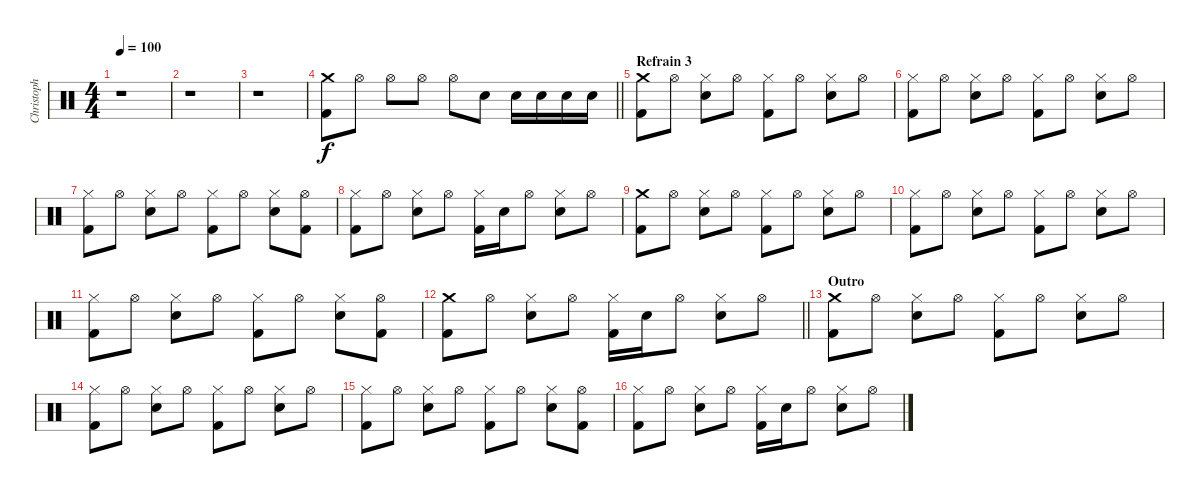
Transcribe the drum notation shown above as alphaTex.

\track ("Christoph - Drums" "Christoph ") {instrument percussion}
\staff {score}
\articulation defaults
\ts (4 4)
\tempo 100
\clef neutral
\ks c
r.1{dy f} |
r.1 |
r.1 |
\barLineRight lightlight
("Crash medium (hit)" "Kick (hit) 2").8 "Hi-Hat (open)".8 "Hi-Hat (open)".8 "Hi-Hat (open)".8 "Hi-Hat (open)".8 "Snare (hit) 2".8 "Snare (hit) 2".16 "Snare (hit) 2".16 "Snare (hit) 2".16 "Snare (hit) 2".16 |
\section ("" "Refrain 3")
("Crash medium (hit)" "Kick (hit) 2").8 "Hi-Hat (open)".8 ("Hi-Hat (closed)" "Snare (hit) 2").8 "Hi-Hat (open)".8 ("Hi-Hat (closed)" "Kick (hit) 2").8 "Hi-Hat (open)".8 ("Hi-Hat (closed)" "Snare (hit) 2").8 "Hi-Hat (open)".8 |
("Hi-Hat (closed)" "Kick (hit) 2").8 "Hi-Hat (open)".8 ("Hi-Hat (closed)" "Snare (hit) 2").8 "Hi-Hat (open)".8 ("Hi-Hat (closed)" "Kick (hit) 2").8 "Hi-Hat (open)".8 ("Hi-Hat (closed)" "Snare (hit) 2").8 "Hi-Hat (open)".8 |
("Hi-Hat (closed)" "Kick (hit) 2").8 "Hi-Hat (open)".8 ("Hi-Hat (closed)" "Snare (hit) 2").8 "Hi-Hat (open)".8 ("Hi-Hat (closed)" "Kick (hit) 2").8 "Hi-Hat (open)".8 ("Hi-Hat (closed)" "Snare (hit) 2").8 ("Hi-Hat (open)" "Kick (hit) 2").8 |
("Hi-Hat (closed)" "Kick (hit) 2").8 "Hi-Hat (open)".8 ("Hi-Hat (closed)" "Snare (hit) 2").8 "Hi-Hat (open)".8 ("Hi-Hat (closed)" "Kick (hit) 2").16 "Snare (hit) 2".16 "Hi-Hat (open)".8 ("Hi-Hat (closed)" "Snare (hit) 2").8 "Hi-Hat (open)".8 |
("Crash medium (hit)" "Kick (hit) 2").8 "Hi-Hat (open)".8 ("Hi-Hat (closed)" "Snare (hit) 2").8 "Hi-Hat (open)".8 ("Hi-Hat (closed)" "Kick (hit) 2").8 "Hi-Hat (open)".8 ("Hi-Hat (closed)" "Snare (hit) 2").8 "Hi-Hat (open)".8 |
("Hi-Hat (closed)" "Kick (hit) 2").8 "Hi-Hat (open)".8 ("Hi-Hat (closed)" "Snare (hit) 2").8 "Hi-Hat (open)".8 ("Hi-Hat (closed)" "Kick (hit) 2").8 "Hi-Hat (open)".8 ("Hi-Hat (closed)" "Snare (hit) 2").8 "Hi-Hat (open)".8 |
("Hi-Hat (closed)" "Kick (hit) 2").8 "Hi-Hat (open)".8 ("Hi-Hat (closed)" "Snare (hit) 2").8 "Hi-Hat (open)".8 ("Hi-Hat (closed)" "Kick (hit) 2").8 "Hi-Hat (open)".8 ("Hi-Hat (closed)" "Snare (hit) 2").8 ("Hi-Hat (open)" "Kick (hit) 2").8 |
\barLineRight lightlight
("Crash medium (hit)" "Kick (hit) 2").8 "Hi-Hat (open)".8 ("Hi-Hat (closed)" "Snare (hit) 2").8 "Hi-Hat (open)".8 ("Hi-Hat (closed)" "Kick (hit) 2").16 "Snare (hit) 2".16 "Hi-Hat (open)".8 ("Hi-Hat (closed)" "Snare (hit) 2").8 "Hi-Hat (open)".8 |
\section ("" "Outro")
("Crash medium (hit)" "Kick (hit) 2").8 "Hi-Hat (open)".8 ("Hi-Hat (closed)" "Snare (hit) 2").8 "Hi-Hat (open)".8 ("Hi-Hat (closed)" "Kick (hit) 2").8 "Hi-Hat (open)".8 ("Hi-Hat (closed)" "Snare (hit) 2").8 "Hi-Hat (open)".8 |
("Hi-Hat (closed)" "Kick (hit) 2").8 "Hi-Hat (open)".8 ("Hi-Hat (closed)" "Snare (hit) 2").8 "Hi-Hat (open)".8 ("Hi-Hat (closed)" "Kick (hit) 2").8 "Hi-Hat (open)".8 ("Hi-Hat (closed)" "Snare (hit) 2").8 "Hi-Hat (open)".8 |
("Hi-Hat (closed)" "Kick (hit) 2").8 "Hi-Hat (open)".8 ("Hi-Hat (closed)" "Snare (hit) 2").8 "Hi-Hat (open)".8 ("Hi-Hat (closed)" "Kick (hit) 2").8 "Hi-Hat (open)".8 ("Hi-Hat (closed)" "Snare (hit) 2").8 ("Hi-Hat (open)" "Kick (hit) 2").8 |
("Hi-Hat (closed)" "Kick (hit) 2").8 "Hi-Hat (open)".8 ("Hi-Hat (closed)" "Snare (hit) 2").8 "Hi-Hat (open)".8 ("Hi-Hat (closed)" "Kick (hit) 2").16 "Snare (hit) 2".16 "Hi-Hat (open)".8 ("Hi-Hat (closed)" "Snare (hit) 2").8 "Hi-Hat (open)".8
